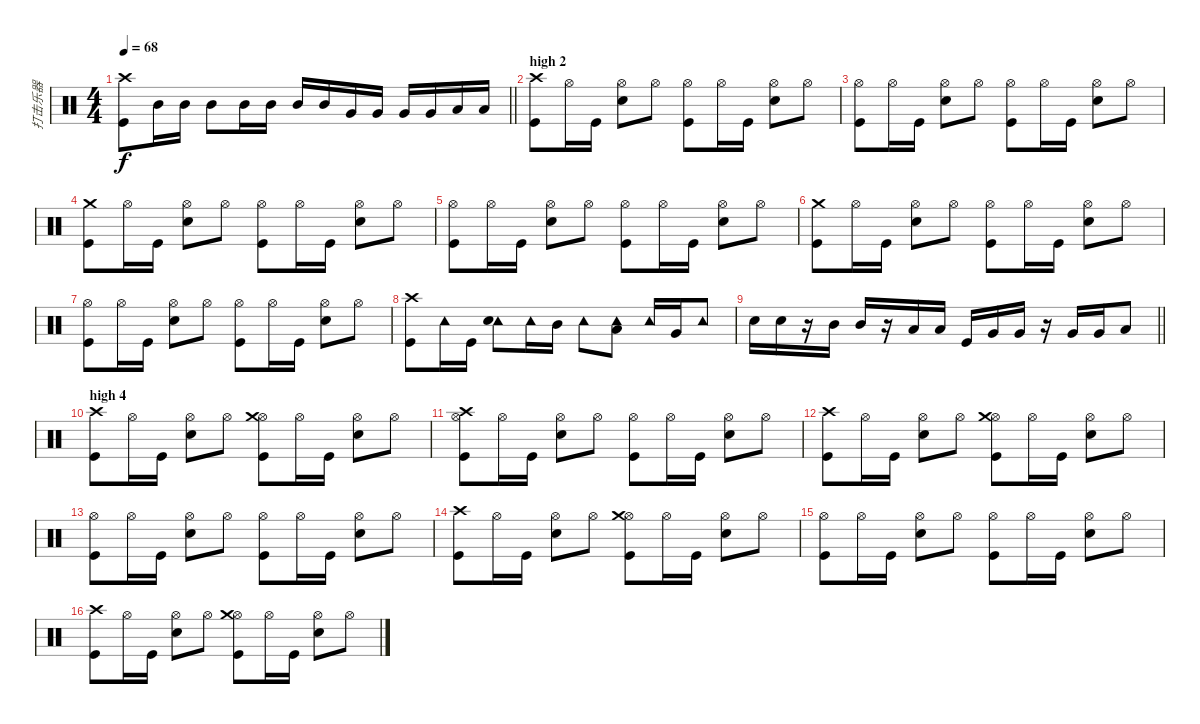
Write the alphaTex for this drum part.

\track ("打击乐器" "打击乐器") {instrument percussion}
\staff {score}
\articulation defaults
\ts (4 4)
\tempo 68
\clef neutral
\barLineRight lightlight
\ks c
("Kick (hit)" "Crash high (hit)").8{dy f} "Mid Tom (hit)".16 "Mid Tom (hit)".16 "Mid Tom (hit)".8 "Mid Tom (hit)".16 "Mid Tom (hit)".16 "Mid Tom (hit)".16 "Mid Tom (hit)".16 "Very Low Tom (hit)".16 "Very Low Tom (hit)".16 "Very Low Tom (hit)".16 "Very Low Tom (hit)".16 "Low Floor Tom (hit)".16 "Low Floor Tom (hit)".16 |
\section ("" "high 2")
("Kick (hit)" "Crash high (hit)").8 "Hi-Hat (open)".16 "Kick (hit)".16 ("Hi-Hat (open)" "Snare (hit) 2").8 "Hi-Hat (open)".8 ("Hi-Hat (open)" "Kick (hit)").8 "Hi-Hat (open)".16 "Kick (hit)".16 ("Hi-Hat (open)" "Snare (hit) 2").8 "Hi-Hat (open)".8 |
("Hi-Hat (open)" "Kick (hit)").8 "Hi-Hat (open)".16 "Kick (hit)".16 ("Hi-Hat (open)" "Snare (hit) 2").8 "Hi-Hat (open)".8 ("Hi-Hat (open)" "Kick (hit)").8 "Hi-Hat (open)".16 "Kick (hit)".16 ("Hi-Hat (open)" "Snare (hit) 2").8 "Hi-Hat (open)".8 |
("Kick (hit)" "Crash medium (hit)").8 "Hi-Hat (open)".16 "Kick (hit)".16 ("Hi-Hat (open)" "Snare (hit) 2").8 "Hi-Hat (open)".8 ("Hi-Hat (open)" "Kick (hit)").8 "Hi-Hat (open)".16 "Kick (hit)".16 ("Hi-Hat (open)" "Snare (hit) 2").8 "Hi-Hat (open)".8 |
("Hi-Hat (open)" "Kick (hit)").8 "Hi-Hat (open)".16 "Kick (hit)".16 ("Hi-Hat (open)" "Snare (hit) 2").8 "Hi-Hat (open)".8 ("Hi-Hat (open)" "Kick (hit)").8 "Hi-Hat (open)".16 "Kick (hit)".16 ("Hi-Hat (open)" "Snare (hit) 2").8 "Hi-Hat (open)".8 |
("Kick (hit)" "Crash medium (hit)").8 "Hi-Hat (open)".16 "Kick (hit)".16 ("Hi-Hat (open)" "Snare (hit) 2").8 "Hi-Hat (open)".8 ("Hi-Hat (open)" "Kick (hit)").8 "Hi-Hat (open)".16 "Kick (hit)".16 ("Hi-Hat (open)" "Snare (hit) 2").8 "Hi-Hat (open)".8 |
("Hi-Hat (open)" "Kick (hit)").8 "Hi-Hat (open)".16 "Kick (hit)".16 ("Hi-Hat (open)" "Snare (hit) 2").8 "Hi-Hat (open)".8 ("Hi-Hat (open)" "Kick (hit)").8 "Hi-Hat (open)".16 "Kick (hit)".16 ("Hi-Hat (open)" "Snare (hit) 2").8 "Hi-Hat (open)".8 |
("Crash high (hit)" "Kick (hit)").8 "Tambourine (hit)".16 "Kick (hit)".16 ("Tambourine (hit)" "Snare (hit) 2").8 "Tambourine (hit)".16 "Mid Tom (hit)".16 "Tambourine (hit)".8 ("Tambourine (hit)" "Low Tom (hit)").8 "Tambourine (hit)".16 "Very Low Tom (hit)".16 "Tambourine (hit)".8 |
\barLineRight lightlight "Snare (hit) 2".16 "Snare (hit) 2".16
r.16 "Mid Tom (hit)".16 "Mid Tom (hit)".16 r.16 "Low Tom (hit)".16 "Low Tom (hit)".16 "Kick (hit)".16 "Very Low Tom (hit)".16 "Very Low Tom (hit)".16 r.16 "Very Low Tom (hit)".16 "Very Low Tom (hit)".16 "Low Floor Tom (hit)".8 |
\section ("" "high 4")
("Kick (hit)" "Crash high (hit)").8 "Hi-Hat (open)".16 "Kick (hit)".16 ("Hi-Hat (open)" "Snare (hit) 2").8 "Hi-Hat (open)".8 ("Hi-Hat (open)" "Kick (hit)" "Crash medium (hit)").8 "Hi-Hat (open)".16 "Kick (hit)".16 ("Hi-Hat (open)" "Snare (hit) 2").8 "Hi-Hat (open)".8 |
("Hi-Hat (open)" "Kick (hit)" "Crash high (hit)").8 "Hi-Hat (open)".16 "Kick (hit)".16 ("Hi-Hat (open)" "Snare (hit) 2").8 "Hi-Hat (open)".8 ("Hi-Hat (open)" "Kick (hit)").8 "Hi-Hat (open)".16 "Kick (hit)".16 ("Hi-Hat (open)" "Snare (hit) 2").8 "Hi-Hat (open)".8 |
("Kick (hit)" "Crash high (hit)").8 "Hi-Hat (open)".16 "Kick (hit)".16 ("Hi-Hat (open)" "Snare (hit) 2").8 "Hi-Hat (open)".8 ("Hi-Hat (open)" "Kick (hit)" "Crash medium (hit)").8 "Hi-Hat (open)".16 "Kick (hit)".16 ("Hi-Hat (open)" "Snare (hit) 2").8 "Hi-Hat (open)".8 |
("Hi-Hat (open)" "Kick (hit)").8 "Hi-Hat (open)".16 "Kick (hit)".16 ("Hi-Hat (open)" "Snare (hit) 2").8 "Hi-Hat (open)".8 ("Hi-Hat (open)" "Kick (hit)").8 "Hi-Hat (open)".16 "Kick (hit)".16 ("Hi-Hat (open)" "Snare (hit) 2").8 "Hi-Hat (open)".8 |
("Kick (hit)" "Crash high (hit)").8 "Hi-Hat (open)".16 "Kick (hit)".16 ("Hi-Hat (open)" "Snare (hit) 2").8 "Hi-Hat (open)".8 ("Hi-Hat (open)" "Kick (hit)" "Crash medium (hit)").8 "Hi-Hat (open)".16 "Kick (hit)".16 ("Hi-Hat (open)" "Snare (hit) 2").8 "Hi-Hat (open)".8 |
("Hi-Hat (open)" "Kick (hit)").8 "Hi-Hat (open)".16 "Kick (hit)".16 ("Hi-Hat (open)" "Snare (hit) 2").8 "Hi-Hat (open)".8 ("Hi-Hat (open)" "Kick (hit)").8 "Hi-Hat (open)".16 "Kick (hit)".16 ("Hi-Hat (open)" "Snare (hit) 2").8 "Hi-Hat (open)".8 |
("Kick (hit)" "Crash high (hit)").8 "Hi-Hat (open)".16 "Kick (hit)".16 ("Hi-Hat (open)" "Snare (hit) 2").8 "Hi-Hat (open)".8 ("Hi-Hat (open)" "Kick (hit)" "Crash medium (hit)").8 "Hi-Hat (open)".16 "Kick (hit)".16 ("Hi-Hat (open)" "Snare (hit) 2").8 "Hi-Hat (open)".8
